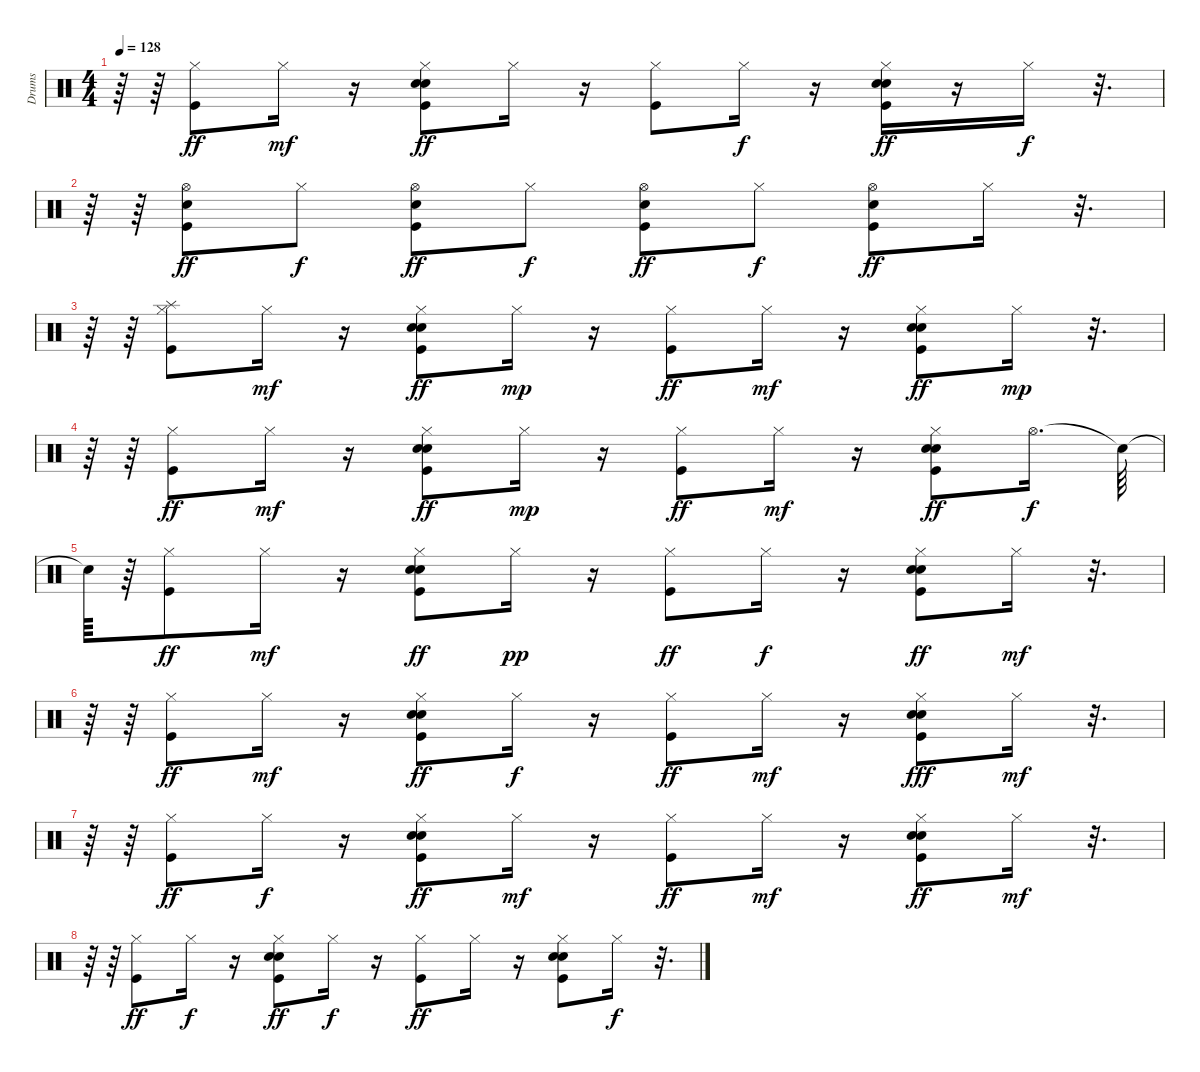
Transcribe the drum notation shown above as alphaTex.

\track ("Drums" "Drums") {instrument percussion}
\staff {score}
\articulation defaults
\ts (4 4)
\tempo 128
\clef neutral
\ks c
r.64{dy f} r.64 ("Kick (hit)" "Hi-Hat (closed)").8{dy ff} "Hi-Hat (closed)".16{dy mf} r.16 ("Kick (hit)" "Electric Snare (hit)" "Hand Clap (hit)" "Hi-Hat (closed)").8{dy ff} "Hi-Hat (closed)".16 r.16 ("Kick (hit)" "Hi-Hat (closed)").8 "Hi-Hat (closed)".16{dy f} r.16 ("Kick (hit)" "Electric Snare (hit)" "Hand Clap (hit)" "Hi-Hat (closed)").16{dy ff} r.16 "Hi-Hat (closed)".16{dy f} r.32{d} |
r.64 r.64 ("Kick (hit)" "Electric Snare (hit)" "Hi-Hat (open)").8{dy ff} "Hi-Hat (closed)".8{dy f} ("Kick (hit)" "Electric Snare (hit)" "Hi-Hat (open)").8{dy ff} "Hi-Hat (closed)".8{dy f} ("Kick (hit)" "Electric Snare (hit)" "Hi-Hat (open)").8{dy ff} "Hi-Hat (closed)".8{dy f} ("Kick (hit)" "Electric Snare (hit)" "Hi-Hat (open)").8{dy ff} "Hi-Hat (closed)".16 r.32{d} |
r.64 r.64 ("Kick (hit)" "Hi-Hat (closed)" "Splash (hit)").8 "Hi-Hat (closed)".16{dy mf} r.16 ("Kick (hit)" "Electric Snare (hit)" "Hand Clap (hit)" "Hi-Hat (closed)").8{dy ff} "Hi-Hat (closed)".16{dy mp} r.16 ("Kick (hit)" "Hi-Hat (closed)").8{dy ff} "Hi-Hat (closed)".16{dy mf} r.16 ("Kick (hit)" "Electric Snare (hit)" "Hand Clap (hit)" "Hi-Hat (closed)").8{dy ff} "Hi-Hat (closed)".16{dy mp} r.32{d} |
r.64 r.64 ("Kick (hit)" "Hi-Hat (closed)").8{dy ff} "Hi-Hat (closed)".16{dy mf} r.16 ("Kick (hit)" "Electric Snare (hit)" "Hand Clap (hit)" "Hi-Hat (closed)").8{dy ff} "Hi-Hat (closed)".16{dy mp} r.16 ("Kick (hit)" "Hi-Hat (closed)").8{dy ff} "Hi-Hat (closed)".16{dy mf} r.16 ("Kick (hit)" "Electric Snare (hit)" "Hand Clap (hit)" "Hi-Hat (closed)").8{dy ff} "Hi-Hat (open)".16{d dy f} "Snare (hit)"{t}.64 |
"Snare (hit)"{t}.64 r.64 ("Kick (hit)" "Hi-Hat (closed)").8{dy ff} "Hi-Hat (closed)".16{dy mf} r.16 ("Kick (hit)" "Electric Snare (hit)" "Hand Clap (hit)" "Hi-Hat (closed)").8{dy ff} "Hi-Hat (closed)".16{dy pp} r.16 ("Kick (hit)" "Hi-Hat (closed)").8{dy ff} "Hi-Hat (closed)".16{dy f} r.16 ("Kick (hit)" "Electric Snare (hit)" "Hand Clap (hit)" "Hi-Hat (closed)").8{dy ff} "Hi-Hat (closed)".16{dy mf} r.32{d} |
r.64 r.64 ("Kick (hit)" "Hi-Hat (closed)").8{dy ff} "Hi-Hat (closed)".16{dy mf} r.16 ("Kick (hit)" "Electric Snare (hit)" "Hand Clap (hit)" "Hi-Hat (closed)").8{dy ff} "Hi-Hat (closed)".16{dy f} r.16 ("Kick (hit)" "Hi-Hat (closed)").8{dy ff} "Hi-Hat (closed)".16{dy mf} r.16 ("Kick (hit)" "Electric Snare (hit)" "Hand Clap (hit)" "Hi-Hat (closed)").8{dy fff} "Hi-Hat (closed)".16{dy mf} r.32{d} |
r.64 r.64 ("Kick (hit)" "Hi-Hat (closed)").8{dy ff} "Hi-Hat (closed)".16{dy f} r.16 ("Kick (hit)" "Electric Snare (hit)" "Hand Clap (hit)" "Hi-Hat (closed)").8{dy ff} "Hi-Hat (closed)".16{dy mf} r.16 ("Kick (hit)" "Hi-Hat (closed)").8{dy ff} "Hi-Hat (closed)".16{dy mf} r.16 ("Kick (hit)" "Electric Snare (hit)" "Hand Clap (hit)" "Hi-Hat (closed)").8{dy ff} "Hi-Hat (closed)".16{dy mf} r.32{d} |
r.64 r.64 ("Kick (hit)" "Hi-Hat (closed)").8{dy ff} "Hi-Hat (closed)".16{dy f} r.16 ("Kick (hit)" "Electric Snare (hit)" "Hand Clap (hit)" "Hi-Hat (closed)").8{dy ff} "Hi-Hat (closed)".16{dy f} r.16 ("Kick (hit)" "Hi-Hat (closed)").8{dy ff} "Hi-Hat (closed)".16 r.16 ("Kick (hit)" "Electric Snare (hit)" "Hand Clap (hit)" "Hi-Hat (closed)").8 "Hi-Hat (closed)".16{dy f} r.32{d}
